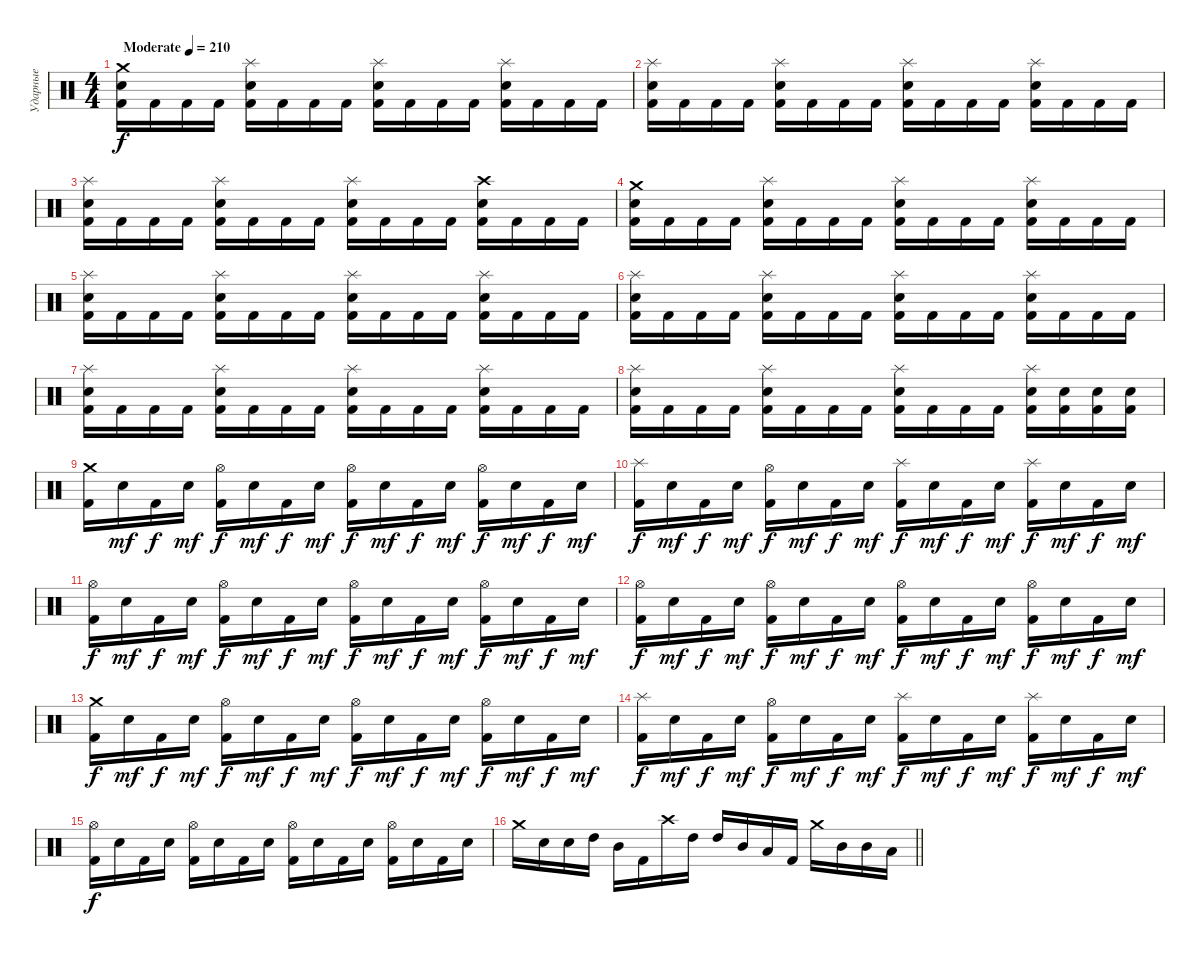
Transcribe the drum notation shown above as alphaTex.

\track ("Ударные" "Ударные") {instrument percussion}
\staff {score}
\articulation defaults
\ts (4 4)
\tempo (210 "Moderate")
\clef neutral
\ks c
("Crash medium (hit)" "Snare (hit) 2" "Kick (hit) 2").16{dy f} "Kick (hit) 2".16 "Kick (hit) 2".16 "Kick (hit) 2".16 ("Splash (hit)" "Snare (hit) 2" "Kick (hit) 2").16 "Kick (hit) 2".16 "Kick (hit) 2".16 "Kick (hit) 2".16 ("Splash (hit)" "Snare (hit) 2" "Kick (hit) 2").16 "Kick (hit) 2".16 "Kick (hit) 2".16 "Kick (hit) 2".16 ("Splash (hit)" "Snare (hit) 2" "Kick (hit) 2").16 "Kick (hit) 2".16 "Kick (hit) 2".16 "Kick (hit) 2".16 |
("Splash (hit)" "Snare (hit) 2" "Kick (hit) 2").16 "Kick (hit) 2".16 "Kick (hit) 2".16 "Kick (hit) 2".16 ("Splash (hit)" "Snare (hit) 2" "Kick (hit) 2").16 "Kick (hit) 2".16 "Kick (hit) 2".16 "Kick (hit) 2".16 ("Splash (hit)" "Snare (hit) 2" "Kick (hit) 2").16 "Kick (hit) 2".16 "Kick (hit) 2".16 "Kick (hit) 2".16 ("Splash (hit)" "Snare (hit) 2" "Kick (hit) 2").16 "Kick (hit) 2".16 "Kick (hit) 2".16 "Kick (hit) 2".16 |
("Splash (hit)" "Snare (hit) 2" "Kick (hit) 2").16 "Kick (hit) 2".16 "Kick (hit) 2".16 "Kick (hit) 2".16 ("Splash (hit)" "Snare (hit) 2" "Kick (hit) 2").16 "Kick (hit) 2".16 "Kick (hit) 2".16 "Kick (hit) 2".16 ("Splash (hit)" "Snare (hit) 2" "Kick (hit) 2").16 "Kick (hit) 2".16 "Kick (hit) 2".16 "Kick (hit) 2".16 ("Crash high (hit)" "Snare (hit) 2" "Kick (hit) 2").16 "Kick (hit) 2".16 "Kick (hit) 2".16 "Kick (hit) 2".16 |
("Crash medium (hit)" "Snare (hit) 2" "Kick (hit) 2").16 "Kick (hit) 2".16 "Kick (hit) 2".16 "Kick (hit) 2".16 ("Splash (hit)" "Snare (hit) 2" "Kick (hit) 2").16 "Kick (hit) 2".16 "Kick (hit) 2".16 "Kick (hit) 2".16 ("Splash (hit)" "Snare (hit) 2" "Kick (hit) 2").16 "Kick (hit) 2".16 "Kick (hit) 2".16 "Kick (hit) 2".16 ("Splash (hit)" "Snare (hit) 2" "Kick (hit) 2").16 "Kick (hit) 2".16 "Kick (hit) 2".16 "Kick (hit) 2".16 |
("Splash (hit)" "Snare (hit) 2" "Kick (hit) 2").16 "Kick (hit) 2".16 "Kick (hit) 2".16 "Kick (hit) 2".16 ("Splash (hit)" "Snare (hit) 2" "Kick (hit) 2").16 "Kick (hit) 2".16 "Kick (hit) 2".16 "Kick (hit) 2".16 ("Splash (hit)" "Snare (hit) 2" "Kick (hit) 2").16 "Kick (hit) 2".16 "Kick (hit) 2".16 "Kick (hit) 2".16 ("Splash (hit)" "Snare (hit) 2" "Kick (hit) 2").16 "Kick (hit) 2".16 "Kick (hit) 2".16 "Kick (hit) 2".16 |
("Splash (hit)" "Snare (hit) 2" "Kick (hit) 2").16 "Kick (hit) 2".16 "Kick (hit) 2".16 "Kick (hit) 2".16 ("Splash (hit)" "Snare (hit) 2" "Kick (hit) 2").16 "Kick (hit) 2".16 "Kick (hit) 2".16 "Kick (hit) 2".16 ("Splash (hit)" "Snare (hit) 2" "Kick (hit) 2").16 "Kick (hit) 2".16 "Kick (hit) 2".16 "Kick (hit) 2".16 ("Splash (hit)" "Snare (hit) 2" "Kick (hit) 2").16 "Kick (hit) 2".16 "Kick (hit) 2".16 "Kick (hit) 2".16 |
("Splash (hit)" "Snare (hit) 2" "Kick (hit) 2").16 "Kick (hit) 2".16 "Kick (hit) 2".16 "Kick (hit) 2".16 ("Splash (hit)" "Snare (hit) 2" "Kick (hit) 2").16 "Kick (hit) 2".16 "Kick (hit) 2".16 "Kick (hit) 2".16 ("Splash (hit)" "Snare (hit) 2" "Kick (hit) 2").16 "Kick (hit) 2".16 "Kick (hit) 2".16 "Kick (hit) 2".16 ("Splash (hit)" "Snare (hit) 2" "Kick (hit) 2").16 "Kick (hit) 2".16 "Kick (hit) 2".16 "Kick (hit) 2".16 |
("Splash (hit)" "Snare (hit) 2" "Kick (hit) 2").16 "Kick (hit) 2".16 "Kick (hit) 2".16 "Kick (hit) 2".16 ("Splash (hit)" "Snare (hit) 2" "Kick (hit) 2").16 "Kick (hit) 2".16 "Kick (hit) 2".16 "Kick (hit) 2".16 ("Splash (hit)" "Snare (hit) 2" "Kick (hit) 2").16 "Kick (hit) 2".16 "Kick (hit) 2".16 "Kick (hit) 2".16 ("Splash (hit)" "Snare (hit) 2" "Kick (hit) 2").16 ("Snare (hit) 2" "Kick (hit) 2").16 ("Snare (hit) 2" "Kick (hit) 2").16 ("Snare (hit) 2" "Kick (hit) 2").16 |
("Crash medium (hit)" "Kick (hit) 2").16 "Snare (hit) 2".16{dy mf} "Kick (hit) 2".16{dy f} "Snare (hit) 2".16{dy mf} ("Hi-Hat (open)" "Kick (hit) 2").16{dy f} "Snare (hit) 2".16{dy mf} "Kick (hit) 2".16{dy f} "Snare (hit) 2".16{dy mf} ("Hi-Hat (open)" "Kick (hit) 2").16{dy f} "Snare (hit) 2".16{dy mf} "Kick (hit) 2".16{dy f} "Snare (hit) 2".16{dy mf} ("Hi-Hat (open)" "Kick (hit) 2").16{dy f} "Snare (hit) 2".16{dy mf} "Kick (hit) 2".16{dy f} "Snare (hit) 2".16{dy mf} |
("Splash (hit)" "Kick (hit) 2").16{dy f} "Snare (hit) 2".16{dy mf} "Kick (hit) 2".16{dy f} "Snare (hit) 2".16{dy mf} ("Hi-Hat (open)" "Kick (hit) 2").16{dy f} "Snare (hit) 2".16{dy mf} "Kick (hit) 2".16{dy f} "Snare (hit) 2".16{dy mf} ("Splash (hit)" "Kick (hit) 2").16{dy f} "Snare (hit) 2".16{dy mf} "Kick (hit) 2".16{dy f} "Snare (hit) 2".16{dy mf} ("Splash (hit)" "Kick (hit) 2").16{dy f} "Snare (hit) 2".16{dy mf} "Kick (hit) 2".16{dy f} "Snare (hit) 2".16{dy mf} |
("Hi-Hat (open)" "Kick (hit) 2").16{dy f} "Snare (hit) 2".16{dy mf} "Kick (hit) 2".16{dy f} "Snare (hit) 2".16{dy mf} ("Hi-Hat (open)" "Kick (hit) 2").16{dy f} "Snare (hit) 2".16{dy mf} "Kick (hit) 2".16{dy f} "Snare (hit) 2".16{dy mf} ("Hi-Hat (open)" "Kick (hit) 2").16{dy f} "Snare (hit) 2".16{dy mf} "Kick (hit) 2".16{dy f} "Snare (hit) 2".16{dy mf} ("Hi-Hat (open)" "Kick (hit) 2").16{dy f} "Snare (hit) 2".16{dy mf} "Kick (hit) 2".16{dy f} "Snare (hit) 2".16{dy mf} |
("Hi-Hat (open)" "Kick (hit) 2").16{dy f} "Snare (hit) 2".16{dy mf} "Kick (hit) 2".16{dy f} "Snare (hit) 2".16{dy mf} ("Hi-Hat (open)" "Kick (hit) 2").16{dy f} "Snare (hit) 2".16{dy mf} "Kick (hit) 2".16{dy f} "Snare (hit) 2".16{dy mf} ("Hi-Hat (open)" "Kick (hit) 2").16{dy f} "Snare (hit) 2".16{dy mf} "Kick (hit) 2".16{dy f} "Snare (hit) 2".16{dy mf} ("Hi-Hat (open)" "Kick (hit) 2").16{dy f} "Snare (hit) 2".16{dy mf} "Kick (hit) 2".16{dy f} "Snare (hit) 2".16{dy mf} |
("Crash medium (hit)" "Kick (hit) 2").16{dy f} "Snare (hit) 2".16{dy mf} "Kick (hit) 2".16{dy f} "Snare (hit) 2".16{dy mf} ("Hi-Hat (open)" "Kick (hit) 2").16{dy f} "Snare (hit) 2".16{dy mf} "Kick (hit) 2".16{dy f} "Snare (hit) 2".16{dy mf} ("Hi-Hat (open)" "Kick (hit) 2").16{dy f} "Snare (hit) 2".16{dy mf} "Kick (hit) 2".16{dy f} "Snare (hit) 2".16{dy mf} ("Hi-Hat (open)" "Kick (hit) 2").16{dy f} "Snare (hit) 2".16{dy mf} "Kick (hit) 2".16{dy f} "Snare (hit) 2".16{dy mf} |
("Splash (hit)" "Kick (hit) 2").16{dy f} "Snare (hit) 2".16{dy mf} "Kick (hit) 2".16{dy f} "Snare (hit) 2".16{dy mf} ("Hi-Hat (open)" "Kick (hit) 2").16{dy f} "Snare (hit) 2".16{dy mf} "Kick (hit) 2".16{dy f} "Snare (hit) 2".16{dy mf} ("Splash (hit)" "Kick (hit) 2").16{dy f} "Snare (hit) 2".16{dy mf} "Kick (hit) 2".16{dy f} "Snare (hit) 2".16{dy mf} ("Splash (hit)" "Kick (hit) 2").16{dy f} "Snare (hit) 2".16{dy mf} "Kick (hit) 2".16{dy f} "Snare (hit) 2".16{dy mf} |
("Hi-Hat (open)" "Kick (hit) 2").16{dy f} "Snare (hit) 2".16 "Kick (hit) 2".16 "Snare (hit) 2".16 ("Hi-Hat (open)" "Kick (hit) 2").16 "Snare (hit) 2".16 "Kick (hit) 2".16 "Snare (hit) 2".16 ("Hi-Hat (open)" "Kick (hit) 2").16 "Snare (hit) 2".16 "Kick (hit) 2".16 "Snare (hit) 2".16 ("Hi-Hat (open)" "Kick (hit) 2").16 "Snare (hit) 2".16 "Kick (hit) 2".16 "Snare (hit) 2".16 |
\barLineRight lightlight "Crash medium (hit)".16 "Electric Snare (hit)".16 "Electric Snare (hit)".16 "High Tom (hit)".16 "Mid Tom (hit)".16 "Kick (hit) 2".16 "Crash high (hit)".16 "High Tom (hit)".16 "High Tom (hit)".16 "Mid Tom (hit)".16 "Low Tom (hit)".16 "Kick (hit) 2".16 "Crash medium (hit)".16 "Mid Tom (hit)".16 "Mid Tom (hit)".16 "Low Tom (hit)".16
